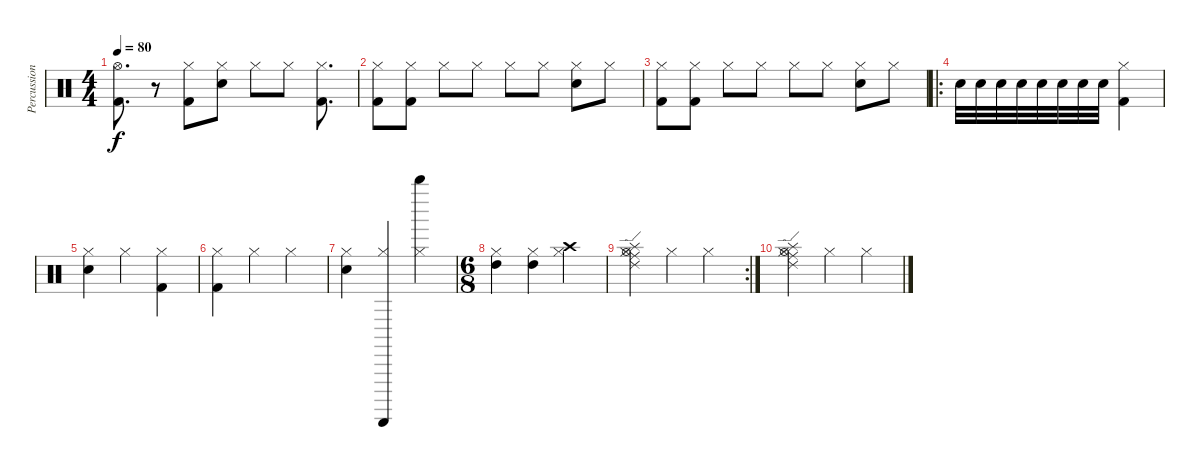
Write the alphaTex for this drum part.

\track ("Percussion" "Percussion") {instrument percussion}
\staff {score}
\articulation defaults
\ts (4 4)
\tempo 80
\clef neutral
\ks c
("Kick (hit) 2" "Hi-Hat (open)").8{d dy f} r.8 ("Kick (hit) 2" "Hi-Hat (closed)").8 ("Snare (hit) 2" "Hi-Hat (closed)").8 "Hi-Hat (closed)".8 "Hi-Hat (closed)".8 ("Kick (hit) 2" "Hi-Hat (closed)").8{d} |
("Kick (hit) 2" "Hi-Hat (closed)").8 ("Kick (hit) 2" "Hi-Hat (closed)").8 "Hi-Hat (closed)".8 "Hi-Hat (closed)".8 "Hi-Hat (closed)".8 "Hi-Hat (closed)".8 ("Snare (hit) 2" "Hi-Hat (closed)").8 "Hi-Hat (closed)".8 |
("Kick (hit) 2" "Hi-Hat (closed)").8 ("Kick (hit) 2" "Hi-Hat (closed)").8 "Hi-Hat (closed)".8 "Hi-Hat (closed)".8 "Hi-Hat (closed)".8 "Hi-Hat (closed)".8 ("Snare (hit) 2" "Hi-Hat (closed)").8 "Hi-Hat (closed)".8 |
\ro "Snare (hit) 2".32 "Snare (hit) 2".32 "Snare (hit) 2".32 "Snare (hit) 2".32 "Snare (hit) 2".32 "Snare (hit) 2".32 "Snare (hit) 2".32 "Snare (hit) 2".32
("Hi-Hat (closed)" "Kick (hit) 2").4 |
("Electric Snare (hit)" "Hi-Hat (closed)").4 "Hi-Hat (closed)".4 ("Kick (hit) 2" "Hi-Hat (closed)").4 |
("Kick (hit) 2" "Hi-Hat (closed)").4 "Hi-Hat (closed)".4 "Hi-Hat (closed)".4 |
("Snare (hit) 2" "Hi-Hat (closed)").4 ("Guiro (scrap-return)" "Hi-Hat (closed)").4 ("Whistle high (hit)" "Hi-Hat (closed)").4 |
\ts (6 8)
("High Tom (hit)" "Hi-Hat (closed)").4 ("High Tom (hit)" "Hi-Hat (closed)").4 ("Crash high (hit)" "Hi-Hat (closed)").4 |
\rc 2
("Ride (middle)" "Ride (edge) 2" "Hi-Hat (open)" "Hi-Hat (closed)" "Splash (hit)").4 "Hi-Hat (closed)".4 "Hi-Hat (closed)".4 |
("Ride (middle)" "Ride (edge) 2" "Hi-Hat (open)" "Hi-Hat (closed)" "Splash (hit)").4 "Hi-Hat (closed)".4 "Hi-Hat (closed)".4
